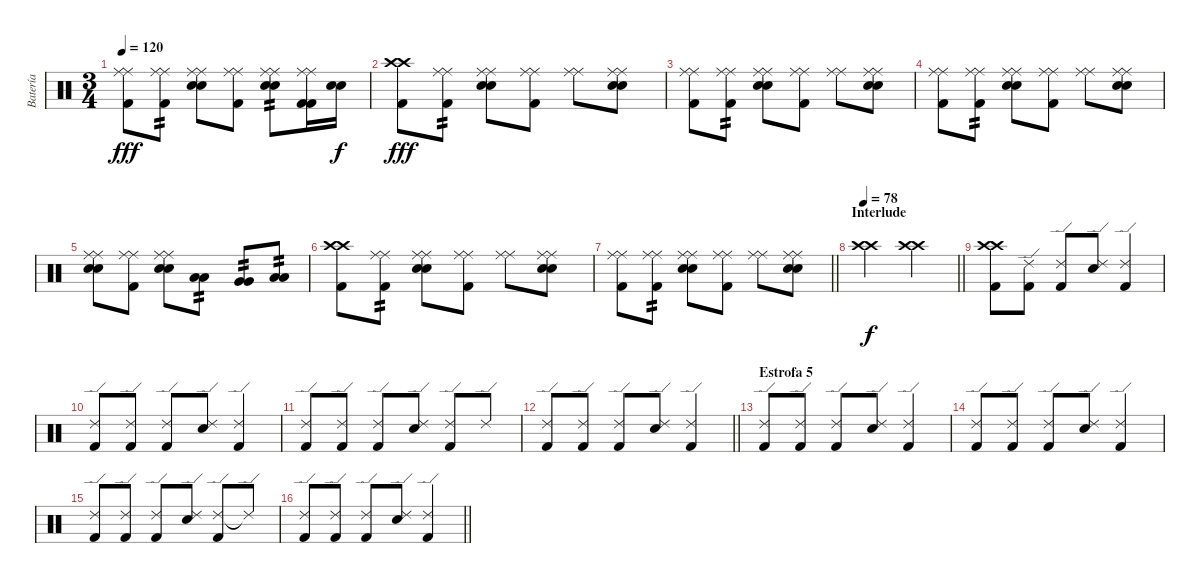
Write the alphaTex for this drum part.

\track ("Batería" "Batería") {instrument percussion}
\staff {score}
\articulation defaults
\ts (3 4)
\tempo 120
\clef neutral
\ks c
("Ride (middle)" "Ride (middle)" "Kick (hit) 2").8{dy fff} ("Ride (middle)" "Ride (middle)" "Kick (hit) 2").8{tp 2} ("Ride (middle)" "Ride (middle)" "Electric Snare (hit)" "Electric Snare (hit)").8 ("Ride (middle)" "Ride (middle)" "Kick (hit) 2").8 ("Ride (middle)" "Ride (middle)" "Electric Snare (hit)" "Electric Snare (hit)").8{tp 2} ("Ride (middle)" "Ride (middle)" "Kick (hit) 2" "Kick (hit) 2").16 ("Electric Snare (hit)" "Electric Snare (hit)").16{dy f} |
("Crash high (hit)" "Crash high (hit)" "Kick (hit) 2").8{dy fff} ("Ride (middle)" "Ride (middle)" "Kick (hit) 2").8{tp 2} ("Ride (middle)" "Ride (middle)" "Electric Snare (hit)" "Electric Snare (hit)").8 ("Ride (middle)" "Ride (middle)" "Kick (hit) 2").8 ("Ride (middle)" "Ride (middle)").8 ("Ride (middle)" "Ride (middle)" "Electric Snare (hit)" "Electric Snare (hit)").8 |
("Ride (middle)" "Ride (middle)" "Kick (hit) 2").8 ("Ride (middle)" "Ride (middle)" "Kick (hit) 2").8{tp 2} ("Ride (middle)" "Ride (middle)" "Electric Snare (hit)" "Electric Snare (hit)").8 ("Ride (middle)" "Ride (middle)" "Kick (hit) 2").8 ("Ride (middle)" "Ride (middle)").8 ("Ride (middle)" "Ride (middle)" "Electric Snare (hit)" "Electric Snare (hit)").8 |
("Ride (middle)" "Ride (middle)" "Kick (hit) 2").8 ("Ride (middle)" "Ride (middle)" "Kick (hit) 2").8{tp 2} ("Ride (middle)" "Ride (middle)" "Electric Snare (hit)" "Electric Snare (hit)").8 ("Ride (middle)" "Ride (middle)" "Kick (hit) 2").8 ("Ride (middle)" "Ride (middle)").8 ("Ride (middle)" "Ride (middle)" "Electric Snare (hit)" "Electric Snare (hit)").8 |
("Ride (middle)" "Ride (middle)" "Electric Snare (hit)" "Electric Snare (hit)").8 ("Ride (middle)" "Ride (middle)" "Kick (hit) 2").8 ("Ride (middle)" "Ride (middle)" "Electric Snare (hit)" "Electric Snare (hit)").8 ("Low Tom (hit)" "Low Tom (hit)").8{tp 2} ("Very Low Tom (hit)" "Very Low Tom (hit)").8{tp 2} ("Low Floor Tom (hit)" "Low Floor Tom (hit)").8{tp 2} |
("Crash high (hit)" "Crash high (hit)" "Kick (hit) 2").8 ("Ride (middle)" "Ride (middle)" "Kick (hit) 2").8{tp 2} ("Ride (middle)" "Ride (middle)" "Electric Snare (hit)" "Electric Snare (hit)").8 ("Ride (middle)" "Ride (middle)" "Kick (hit) 2").8 ("Ride (middle)" "Ride (middle)").8 ("Ride (middle)" "Ride (middle)" "Electric Snare (hit)" "Electric Snare (hit)").8 |
\barLineRight lightlight
("Ride (middle)" "Ride (middle)" "Kick (hit) 2").8 ("Ride (middle)" "Ride (middle)" "Kick (hit) 2").8{tp 2} ("Ride (middle)" "Ride (middle)" "Electric Snare (hit)" "Electric Snare (hit)").8 ("Ride (middle)" "Ride (middle)" "Kick (hit) 2").8 ("Ride (middle)" "Ride (middle)").8 ("Ride (middle)" "Ride (middle)" "Electric Snare (hit)" "Electric Snare (hit)").8 |
\section ("" "Interlude")
\tempo 78
\barLineRight lightlight
("Crash high (hit)" "Crash high (hit)").2{dy f} ("Crash high (hit)" "Crash high (hit)").4 |
("Crash high (hit)" "Crash high (hit)" "Kick (hit) 2").8 ("Ride (edge) 2" "Kick (hit) 2").8 ("Ride (edge) 2" "Kick (hit) 2").8 ("Ride (edge) 2" "Electric Snare (hit)").8 ("Ride (edge) 2" "Kick (hit) 2").4 |
("Ride (edge) 2" "Kick (hit) 2").8 ("Ride (edge) 2" "Kick (hit) 2").8 ("Ride (edge) 2" "Kick (hit) 2").8 ("Ride (edge) 2" "Electric Snare (hit)").8 ("Ride (edge) 2" "Kick (hit) 2").4 |
("Ride (edge) 2" "Kick (hit) 2").8 ("Ride (edge) 2" "Kick (hit) 2").8 ("Ride (edge) 2" "Kick (hit) 2").8 ("Ride (edge) 2" "Electric Snare (hit)").8 ("Ride (edge) 2" "Kick (hit) 2").8 "Ride (edge) 2".8 |
\barLineRight lightlight
("Ride (edge) 2" "Kick (hit) 2").8 ("Ride (edge) 2" "Kick (hit) 2").8 ("Ride (edge) 2" "Kick (hit) 2").8 ("Ride (edge) 2" "Electric Snare (hit)").8 ("Ride (edge) 2" "Kick (hit) 2").4 |
\section ("" "Estrofa 5")
("Ride (edge) 2" "Kick (hit) 2").8 ("Ride (edge) 2" "Kick (hit) 2").8 ("Ride (edge) 2" "Kick (hit) 2").8 ("Ride (edge) 2" "Electric Snare (hit)").8 ("Ride (edge) 2" "Kick (hit) 2").4 |
("Ride (edge) 2" "Kick (hit) 2").8 ("Ride (edge) 2" "Kick (hit) 2").8 ("Ride (edge) 2" "Kick (hit) 2").8 ("Ride (edge) 2" "Electric Snare (hit)").8 ("Ride (edge) 2" "Kick (hit) 2").4 |
("Ride (edge) 2" "Kick (hit) 2").8 ("Ride (edge) 2" "Kick (hit) 2").8 ("Ride (edge) 2" "Kick (hit) 2").8 ("Ride (edge) 2" "Electric Snare (hit)").8 ("Ride (edge) 2" "Kick (hit) 2").8 "Ride (edge) 2"{t}.8 |
\barLineRight lightlight
("Ride (edge) 2" "Kick (hit) 2").8 ("Ride (edge) 2" "Kick (hit) 2").8 ("Ride (edge) 2" "Kick (hit) 2").8 ("Ride (edge) 2" "Electric Snare (hit)").8 ("Ride (edge) 2" "Kick (hit) 2").4
